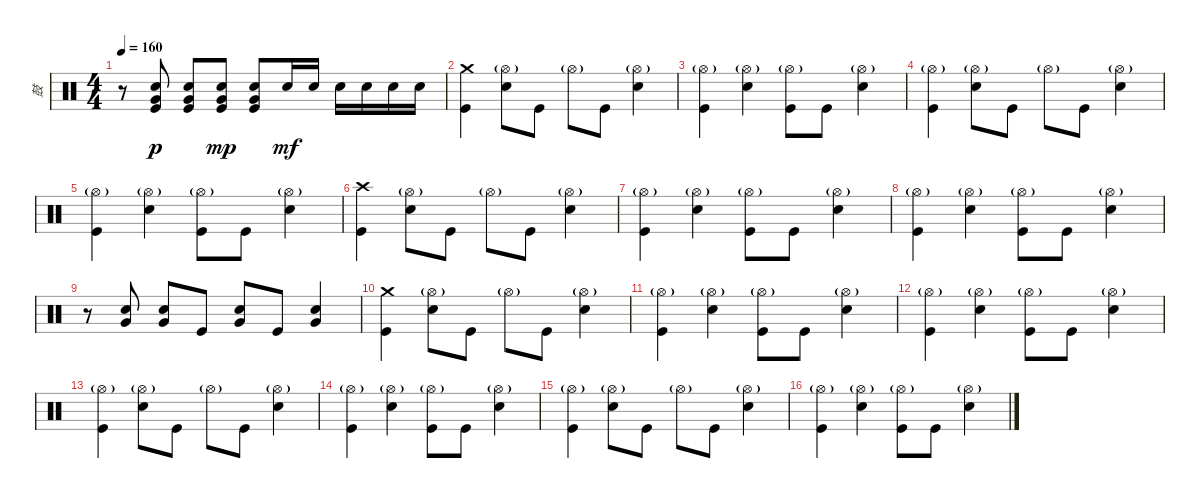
\track ("鼓" "鼓") {instrument percussion}
\staff {score}
\articulation defaults
\ts (4 4)
\tempo 160
\clef neutral
\ks c
r.8{dy mf} ("Kick (hit)" "Very Low Tom (hit)" "Snare (hit) 2").8{dy p} ("Kick (hit)" "Very Low Tom (hit)" "Snare (hit) 2").8 ("Kick (hit)" "Very Low Tom (hit)" "Snare (hit) 2").8{dy mp} ("Kick (hit)" "Very Low Tom (hit)" "Snare (hit) 2").8 "Snare (hit) 2".16{dy mf} "Snare (hit) 2".16 "Snare (hit) 2".16 "Snare (hit) 2".16 "Snare (hit) 2".16 "Snare (hit) 2".16 |
("Kick (hit)" "Crash medium (hit)").4 ("Snare (hit) 2" "Hi-Hat (open)"{g}).8 "Kick (hit)".8 "Hi-Hat (open)"{g}.8 "Kick (hit)".8 ("Snare (hit) 2" "Hi-Hat (open)"{g}).4 |
("Kick (hit)" "Hi-Hat (open)"{g}).4 ("Hi-Hat (open)"{g} "Snare (hit) 2").4 ("Kick (hit)" "Hi-Hat (open)"{g}).8 "Kick (hit)".8 ("Snare (hit) 2" "Hi-Hat (open)"{g}).4 |
("Kick (hit)" "Hi-Hat (open)"{g}).4 ("Snare (hit) 2" "Hi-Hat (open)"{g}).8 "Kick (hit)".8 "Hi-Hat (open)"{g}.8 "Kick (hit)".8 ("Snare (hit) 2" "Hi-Hat (open)"{g}).4 |
("Kick (hit)" "Hi-Hat (open)"{g}).4 ("Hi-Hat (open)"{g} "Snare (hit) 2").4 ("Kick (hit)" "Hi-Hat (open)"{g}).8 "Kick (hit)".8 ("Snare (hit) 2" "Hi-Hat (open)"{g}).4 |
("Kick (hit)" "Crash high (hit)").4 ("Snare (hit) 2" "Hi-Hat (open)"{g}).8 "Kick (hit)".8 "Hi-Hat (open)"{g}.8 "Kick (hit)".8 ("Snare (hit) 2" "Hi-Hat (open)"{g}).4 |
("Kick (hit)" "Hi-Hat (open)"{g}).4 ("Hi-Hat (open)"{g} "Snare (hit) 2").4 ("Kick (hit)" "Hi-Hat (open)"{g}).8 "Kick (hit)".8 ("Snare (hit) 2" "Hi-Hat (open)"{g}).4 |
("Kick (hit)" "Hi-Hat (open)"{g}).4 ("Hi-Hat (open)"{g} "Snare (hit) 2").4 ("Kick (hit)" "Hi-Hat (open)"{g}).8 "Kick (hit)".8 ("Snare (hit) 2" "Hi-Hat (open)"{g}).4 |
r.8 ("Snare (hit) 2" "Very Low Tom (hit)").8 ("Snare (hit) 2" "Very Low Tom (hit)").8 "Kick (hit)".8 ("Snare (hit) 2" "Very Low Tom (hit)").8 "Kick (hit)".8 ("Snare (hit) 2" "Very Low Tom (hit)").4 |
("Kick (hit)" "Crash medium (hit)").4 ("Snare (hit) 2" "Hi-Hat (open)"{g}).8 "Kick (hit)".8 "Hi-Hat (open)"{g}.8 "Kick (hit)".8 ("Snare (hit) 2" "Hi-Hat (open)"{g}).4 |
("Kick (hit)" "Hi-Hat (open)"{g}).4 ("Hi-Hat (open)"{g} "Snare (hit) 2").4 ("Kick (hit)" "Hi-Hat (open)"{g}).8 "Kick (hit)".8 ("Snare (hit) 2" "Hi-Hat (open)"{g}).4 |
("Kick (hit)" "Hi-Hat (open)"{g}).4 ("Hi-Hat (open)"{g} "Snare (hit) 2").4 ("Kick (hit)" "Hi-Hat (open)"{g}).8 "Kick (hit)".8 ("Snare (hit) 2" "Hi-Hat (open)"{g}).4 |
("Kick (hit)" "Hi-Hat (open)"{g}).4 ("Snare (hit) 2" "Hi-Hat (open)"{g}).8 "Kick (hit)".8 "Hi-Hat (open)"{g}.8 "Kick (hit)".8 ("Snare (hit) 2" "Hi-Hat (open)"{g}).4 |
("Kick (hit)" "Hi-Hat (open)"{g}).4 ("Hi-Hat (open)"{g} "Snare (hit) 2").4 ("Kick (hit)" "Hi-Hat (open)"{g}).8 "Kick (hit)".8 ("Snare (hit) 2" "Hi-Hat (open)"{g}).4 |
("Kick (hit)" "Hi-Hat (open)"{g}).4 ("Snare (hit) 2" "Hi-Hat (open)"{g}).8 "Kick (hit)".8 "Hi-Hat (open)"{g}.8 "Kick (hit)".8 ("Snare (hit) 2" "Hi-Hat (open)"{g}).4 |
("Kick (hit)" "Hi-Hat (open)"{g}).4 ("Hi-Hat (open)"{g} "Snare (hit) 2").4 ("Kick (hit)" "Hi-Hat (open)"{g}).8 "Kick (hit)".8 ("Snare (hit) 2" "Hi-Hat (open)"{g}).4
